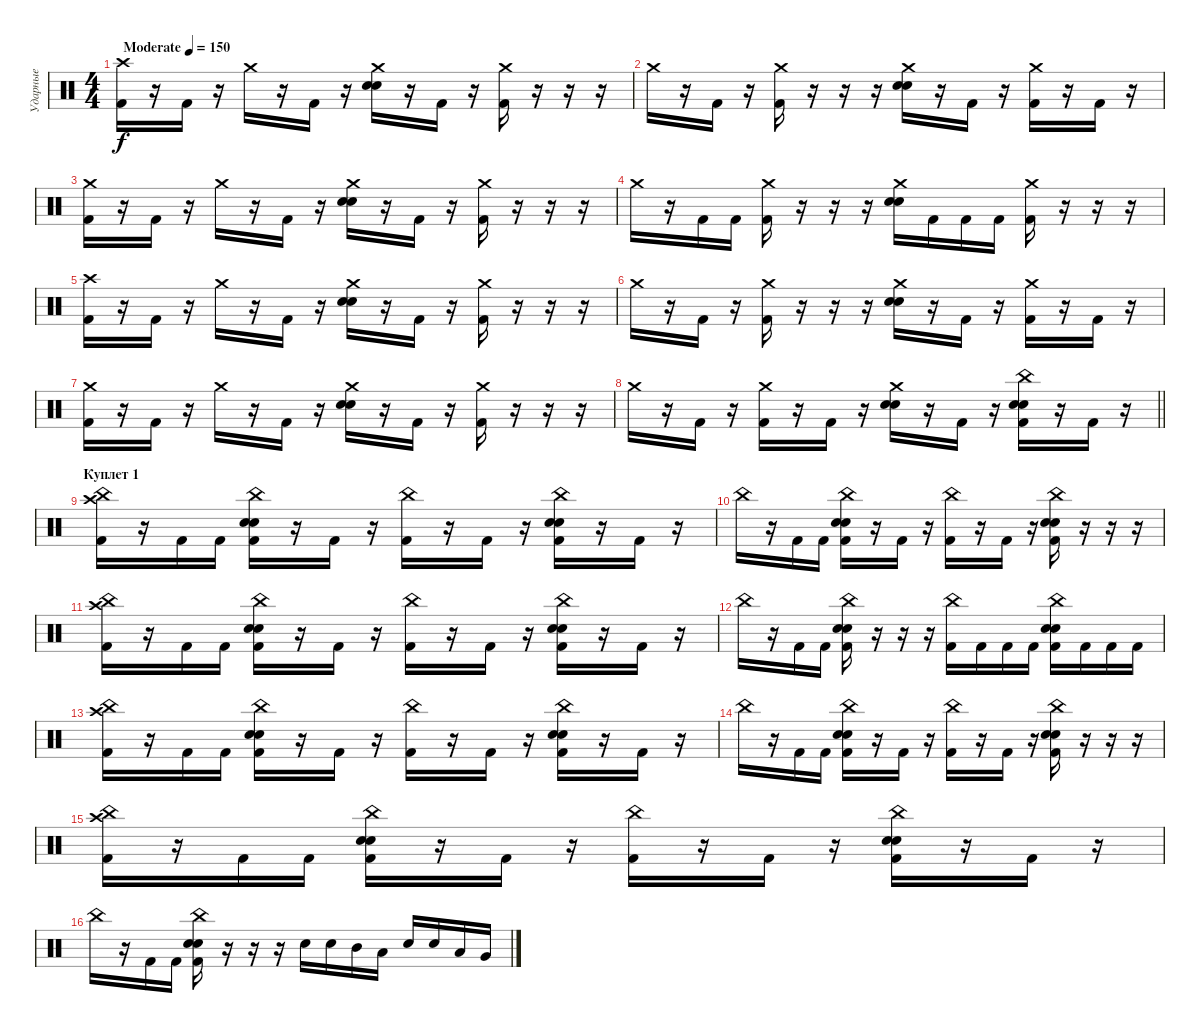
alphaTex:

\track ("Ударные" "Ударные") {solo instrument percussion}
\staff {score}
\articulation defaults
\ts (4 4)
\tempo (150 "Moderate")
\clef neutral
\ks c
("Crash high (hit)" "Kick (hit) 2").16{dy f} r.16 "Kick (hit) 2".16 r.16 "Crash medium (hit)".16 r.16 "Kick (hit) 2".16 r.16 ("Crash medium (hit)" "Electric Snare (hit)" "Snare (hit) 2").16 r.16 "Kick (hit) 2".16 r.16 ("Crash medium (hit)" "Kick (hit) 2").16 r.16 r.16 r.16 |
"Crash medium (hit)".16 r.16 "Kick (hit) 2".16 r.16 ("Crash medium (hit)" "Kick (hit) 2").16 r.16 r.16 r.16 ("Crash medium (hit)" "Electric Snare (hit)" "Snare (hit) 2").16 r.16 "Kick (hit) 2".16 r.16 ("Crash medium (hit)" "Kick (hit) 2").16 r.16 "Kick (hit) 2".16 r.16 |
("Crash medium (hit)" "Kick (hit) 2").16 r.16 "Kick (hit) 2".16 r.16 "Crash medium (hit)".16 r.16 "Kick (hit) 2".16 r.16 ("Crash medium (hit)" "Electric Snare (hit)" "Snare (hit) 2").16 r.16 "Kick (hit) 2".16 r.16 ("Crash medium (hit)" "Kick (hit) 2").16 r.16 r.16 r.16 |
"Crash medium (hit)".16 r.16 "Kick (hit) 2".16 "Kick (hit) 2".16 ("Crash medium (hit)" "Kick (hit) 2").16 r.16 r.16 r.16 ("Crash medium (hit)" "Electric Snare (hit)" "Snare (hit) 2").16 "Kick (hit) 2".16 "Kick (hit) 2".16 "Kick (hit) 2".16 ("Crash medium (hit)" "Kick (hit) 2").16 r.16 r.16 r.16 |
("Crash high (hit)" "Kick (hit) 2").16 r.16 "Kick (hit) 2".16 r.16 "Crash medium (hit)".16 r.16 "Kick (hit) 2".16 r.16 ("Crash medium (hit)" "Electric Snare (hit)" "Snare (hit) 2").16 r.16 "Kick (hit) 2".16 r.16 ("Crash medium (hit)" "Kick (hit) 2").16 r.16 r.16 r.16 |
"Crash medium (hit)".16 r.16 "Kick (hit) 2".16 r.16 ("Crash medium (hit)" "Kick (hit) 2").16 r.16 r.16 r.16 ("Crash medium (hit)" "Electric Snare (hit)" "Snare (hit) 2").16 r.16 "Kick (hit) 2".16 r.16 ("Crash medium (hit)" "Kick (hit) 2").16 r.16 "Kick (hit) 2".16 r.16 |
("Crash medium (hit)" "Kick (hit) 2").16 r.16 "Kick (hit) 2".16 r.16 "Crash medium (hit)".16 r.16 "Kick (hit) 2".16 r.16 ("Crash medium (hit)" "Electric Snare (hit)" "Snare (hit) 2").16 r.16 "Kick (hit) 2".16 r.16 ("Crash medium (hit)" "Kick (hit) 2").16 r.16 r.16 r.16 |
\barLineRight lightlight "Crash medium (hit)".16
r.16 "Kick (hit) 2".16 r.16 ("Crash medium (hit)" "Kick (hit) 2").16 r.16 "Kick (hit) 2".16 r.16 ("Crash medium (hit)" "Electric Snare (hit)" "Snare (hit) 2").16 r.16 "Kick (hit) 2".16 r.16 ("China (hit)" "Electric Snare (hit)" "Snare (hit) 2" "Kick (hit) 2").16 r.16 "Kick (hit) 2".16 r.16 |
\section ("" "Куплет 1")
("China (hit)" "Crash high (hit)" "Kick (hit) 2").16 r.16 "Kick (hit) 2".16 "Kick (hit) 2".16 ("China (hit)" "Electric Snare (hit)" "Snare (hit) 2" "Kick (hit) 2").16 r.16 "Kick (hit) 2".16 r.16 ("China (hit)" "Kick (hit) 2").16 r.16 "Kick (hit) 2".16 r.16 ("China (hit)" "Electric Snare (hit)" "Snare (hit) 2" "Kick (hit) 2").16 r.16 "Kick (hit) 2".16 r.16 |
"China (hit)".16 r.16 "Kick (hit) 2".16 "Kick (hit) 2".16 ("China (hit)" "Electric Snare (hit)" "Snare (hit) 2" "Kick (hit) 2").16 r.16 "Kick (hit) 2".16 r.16 ("China (hit)" "Kick (hit) 2").16 r.16 "Kick (hit) 2".16 r.16 ("China (hit)" "Electric Snare (hit)" "Snare (hit) 2" "Kick (hit) 2").16 r.16 r.16 r.16 |
("Crash high (hit)" "China (hit)" "Kick (hit) 2").16 r.16 "Kick (hit) 2".16 "Kick (hit) 2".16 ("China (hit)" "Electric Snare (hit)" "Snare (hit) 2" "Kick (hit) 2").16 r.16 "Kick (hit) 2".16 r.16 ("China (hit)" "Kick (hit) 2").16 r.16 "Kick (hit) 2".16 r.16 ("China (hit)" "Electric Snare (hit)" "Snare (hit) 2" "Kick (hit) 2").16 r.16 "Kick (hit) 2".16 r.16 |
"China (hit)".16 r.16 "Kick (hit) 2".16 "Kick (hit) 2".16 ("China (hit)" "Electric Snare (hit)" "Snare (hit) 2" "Kick (hit) 2").16 r.16 r.16 r.16 ("China (hit)" "Kick (hit) 2").16 "Kick (hit) 2".16 "Kick (hit) 2".16 "Kick (hit) 2".16 ("China (hit)" "Electric Snare (hit)" "Snare (hit) 2" "Kick (hit) 2").16 "Kick (hit) 2".16 "Kick (hit) 2".16 "Kick (hit) 2".16 |
("China (hit)" "Crash high (hit)" "Kick (hit) 2").16 r.16 "Kick (hit) 2".16 "Kick (hit) 2".16 ("China (hit)" "Electric Snare (hit)" "Snare (hit) 2" "Kick (hit) 2").16 r.16 "Kick (hit) 2".16 r.16 ("China (hit)" "Kick (hit) 2").16 r.16 "Kick (hit) 2".16 r.16 ("China (hit)" "Electric Snare (hit)" "Snare (hit) 2" "Kick (hit) 2").16 r.16 "Kick (hit) 2".16 r.16 |
"China (hit)".16 r.16 "Kick (hit) 2".16 "Kick (hit) 2".16 ("China (hit)" "Electric Snare (hit)" "Snare (hit) 2" "Kick (hit) 2").16 r.16 "Kick (hit) 2".16 r.16 ("China (hit)" "Kick (hit) 2").16 r.16 "Kick (hit) 2".16 r.16 ("China (hit)" "Electric Snare (hit)" "Snare (hit) 2" "Kick (hit) 2").16 r.16 r.16 r.16 |
("China (hit)" "Crash high (hit)" "Kick (hit) 2").16 r.16 "Kick (hit) 2".16 "Kick (hit) 2".16 ("China (hit)" "Electric Snare (hit)" "Snare (hit) 2" "Kick (hit) 2").16 r.16 "Kick (hit) 2".16 r.16 ("China (hit)" "Kick (hit) 2").16 r.16 "Kick (hit) 2".16 r.16 ("China (hit)" "Electric Snare (hit)" "Snare (hit) 2" "Kick (hit) 2").16 r.16 "Kick (hit) 2".16 r.16 |
"China (hit)".16 r.16 "Kick (hit) 2".16 "Kick (hit) 2".16 ("China (hit)" "Electric Snare (hit)" "Snare (hit) 2" "Kick (hit) 2").16 r.16 r.16 r.16 "Snare (hit) 2".16 "Snare (hit) 2".16 "Mid Tom (hit)".16 "Low Tom (hit)".16 "Snare (hit) 2".16 "Snare (hit) 2".16 "Low Tom (hit)".16 "Very Low Tom (hit)".16
